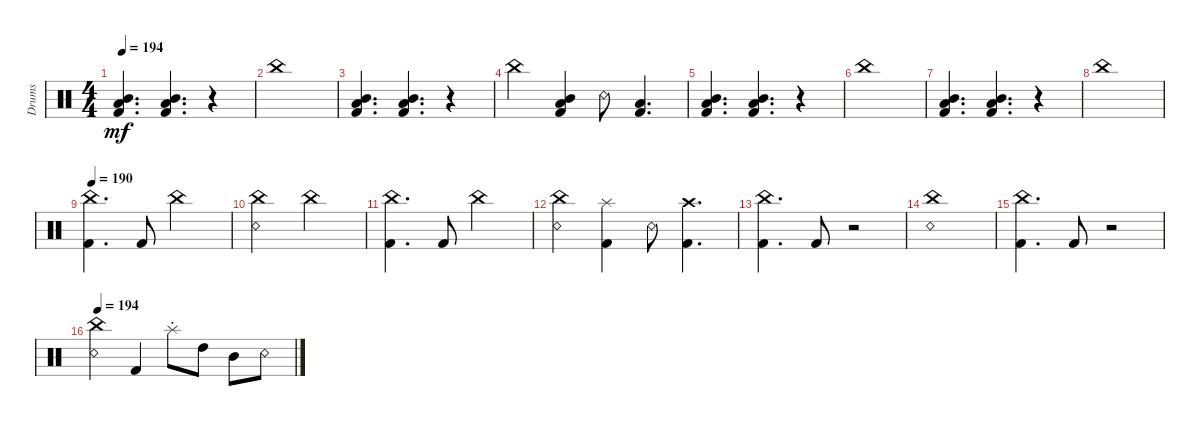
\track ("Drums" "Drums") {instrument percussion}
\staff {score}
\articulation defaults
\ts (4 4)
\tempo 194
\clef neutral
\ks c
("Mid Tom (hit)" "Low Tom (hit)" "Kick (hit) 2").4{d dy mf} ("Mid Tom (hit)" "Low Tom (hit)" "Kick (hit) 2").4{d} r.4 |
"China (hit)".1 |
("Mid Tom (hit)" "Low Tom (hit)" "Kick (hit) 2").4{d} ("Mid Tom (hit)" "Low Tom (hit)" "Kick (hit) 2").4{d} r.4 |
"China (hit)".4 ("Mid Tom (hit)" "Low Tom (hit)" "Kick (hit) 2").4 "Snare (rim shot)".8 ("Low Tom (hit)" "Kick (hit) 2").4{d} |
("Mid Tom (hit)" "Low Tom (hit)" "Kick (hit) 2").4{d} ("Mid Tom (hit)" "Low Tom (hit)" "Kick (hit) 2").4{d} r.4 |
"China (hit)".1 |
("Mid Tom (hit)" "Low Tom (hit)" "Kick (hit) 2").4{d} ("Mid Tom (hit)" "Low Tom (hit)" "Kick (hit) 2").4{d} r.4 |
"China (hit)".1 |
\tempo 190
("China (hit)" "Kick (hit) 2").4{d} "Kick (hit) 2".8 "China (hit)".2 |
("China (hit)" "Snare (rim shot)").2 "China (hit)".2 |
("China (hit)" "Kick (hit) 2").4{d} "Kick (hit) 2".8 "China (hit)".2 |
("China (hit)" "Snare (rim shot)").4 ("Splash (hit)" "Kick (hit) 2").4 "Snare (rim shot)".8 ("Crash high (hit)" "Kick (hit) 2").4{d} |
("China (hit)" "Kick (hit) 2").4{d} "Kick (hit) 2".8 r.2 |
("China (hit)" "Snare (rim shot)").1 |
("China (hit)" "Kick (hit) 2").4{d} "Kick (hit) 2".8 r.2 |
\tempo 194
("China (hit)" "Snare (rim shot)").4 "Kick (hit) 2".4 "Splash (choke)".8 "High Tom (hit)".8 "Mid Tom (hit)".8 "Snare (rim shot)".8
